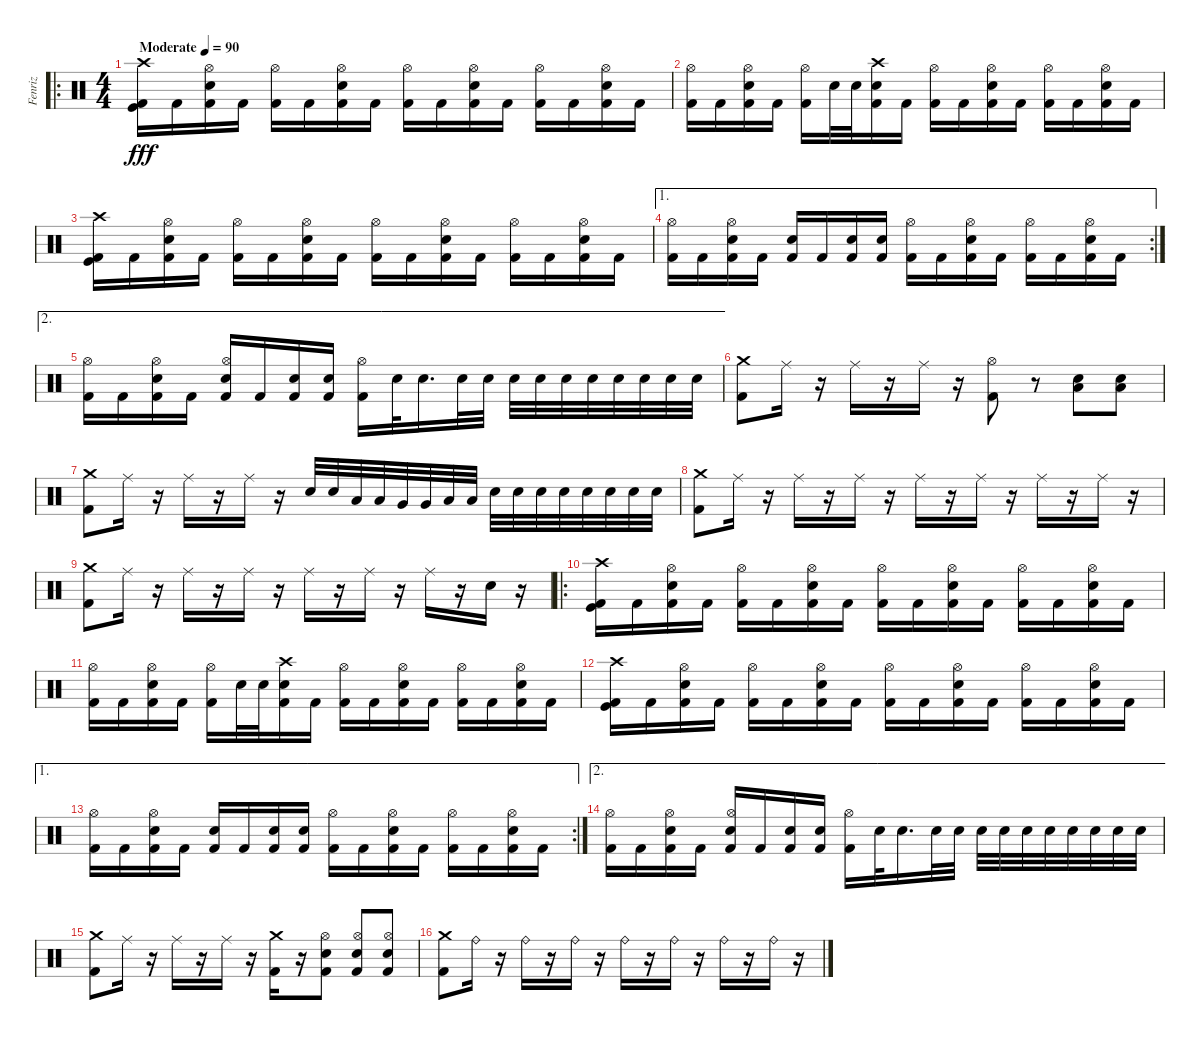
\track ("Fenriz" "Fenriz") {instrument percussion}
\staff {score}
\articulation defaults
\ro
\ts (4 4)
\tempo (90 "Moderate")
\clef neutral
\ks c
("Crash high (hit)" "Kick (hit)" "Kick (hit) 2").16{dy fff} "Kick (hit) 2".16 ("Hi-Hat (open)" "Electric Snare (hit)" "Kick (hit) 2").16 "Kick (hit) 2".16 ("Hi-Hat (open)" "Kick (hit) 2").16 "Kick (hit) 2".16 ("Hi-Hat (open)" "Electric Snare (hit)" "Kick (hit) 2").16 "Kick (hit) 2".16 ("Hi-Hat (open)" "Kick (hit) 2").16 "Kick (hit) 2".16 ("Hi-Hat (open)" "Electric Snare (hit)" "Kick (hit) 2").16 "Kick (hit) 2".16 ("Hi-Hat (open)" "Kick (hit) 2").16 "Kick (hit) 2".16 ("Hi-Hat (open)" "Electric Snare (hit)" "Kick (hit) 2").16 "Kick (hit) 2".16 |
("Hi-Hat (open)" "Kick (hit) 2").16 "Kick (hit) 2".16 ("Hi-Hat (open)" "Electric Snare (hit)" "Kick (hit) 2").16 "Kick (hit) 2".16 ("Hi-Hat (open)" "Kick (hit) 2").16 "Snare (hit) 2".32 "Snare (hit) 2".32 ("Crash high (hit)" "Snare (hit) 2" "Kick (hit) 2").16 "Kick (hit) 2".16 ("Hi-Hat (open)" "Kick (hit) 2").16 "Kick (hit) 2".16 ("Hi-Hat (open)" "Electric Snare (hit)" "Kick (hit) 2").16 "Kick (hit) 2".16 ("Hi-Hat (open)" "Kick (hit) 2").16 "Kick (hit) 2".16 ("Hi-Hat (open)" "Electric Snare (hit)" "Kick (hit) 2").16 "Kick (hit) 2".16 |
("Crash high (hit)" "Kick (hit)" "Kick (hit) 2").16 "Kick (hit) 2".16 ("Hi-Hat (open)" "Electric Snare (hit)" "Kick (hit) 2").16 "Kick (hit) 2".16 ("Hi-Hat (open)" "Kick (hit) 2").16 "Kick (hit) 2".16 ("Hi-Hat (open)" "Electric Snare (hit)" "Kick (hit) 2").16 "Kick (hit) 2".16 ("Hi-Hat (open)" "Kick (hit) 2").16 "Kick (hit) 2".16 ("Hi-Hat (open)" "Electric Snare (hit)" "Kick (hit) 2").16 "Kick (hit) 2".16 ("Hi-Hat (open)" "Kick (hit) 2").16 "Kick (hit) 2".16 ("Hi-Hat (open)" "Electric Snare (hit)" "Kick (hit) 2").16 "Kick (hit) 2".16 |
\ae 1
\rc 2
("Hi-Hat (open)" "Kick (hit) 2").16 "Kick (hit) 2".16 ("Hi-Hat (open)" "Electric Snare (hit)" "Kick (hit) 2").16 "Kick (hit) 2".16 ("Snare (hit) 2" "Kick (hit) 2").16 "Kick (hit) 2".16 ("Snare (hit) 2" "Kick (hit) 2").16 ("Snare (hit) 2" "Kick (hit) 2").16 ("Hi-Hat (open)" "Kick (hit) 2").16 "Kick (hit) 2".16 ("Hi-Hat (open)" "Electric Snare (hit)" "Kick (hit) 2").16 "Kick (hit) 2".16 ("Hi-Hat (open)" "Kick (hit) 2").16 "Kick (hit) 2".16 ("Hi-Hat (open)" "Electric Snare (hit)" "Kick (hit) 2").16 "Kick (hit) 2".16 |
\ae 2
("Hi-Hat (open)" "Kick (hit) 2").16 "Kick (hit) 2".16 ("Hi-Hat (open)" "Electric Snare (hit)" "Kick (hit) 2").16 "Kick (hit) 2".16 ("Hi-Hat (open)" "Electric Snare (hit)" "Kick (hit) 2").16 "Kick (hit) 2".16 ("Electric Snare (hit)" "Kick (hit) 2").16 ("Electric Snare (hit)" "Kick (hit) 2").16 ("Hi-Hat (open)" "Kick (hit) 2").16 "Snare (hit) 2".32 "Snare (hit) 2".16{d} "Snare (hit) 2".32 "Snare (hit) 2".32 "Snare (hit) 2".32 "Snare (hit) 2".32 "Snare (hit) 2".32 "Snare (hit) 2".32 "Snare (hit) 2".32 "Snare (hit) 2".32 "Snare (hit) 2".32 "Snare (hit) 2".32 |
("Crash medium (hit)" "Kick (hit) 2").8 "Ride (middle)".16 r.16 "Ride (middle)".16 r.16 "Ride (middle)".16 r.16 ("Hi-Hat (open)" "Kick (hit) 2").8 r.8 ("Low Floor Tom (hit)" "Snare (hit) 2").8 ("Low Floor Tom (hit)" "Snare (hit) 2").8 |
("Crash medium (hit)" "Kick (hit) 2").8 "Ride (middle)".16 r.16 "Ride (middle)".16 r.16 "Ride (middle)".16 r.16 "Snare (hit) 2".32 "Snare (hit) 2".32 "Low Tom (hit)".32 "Low Tom (hit)".32 "Very Low Tom (hit)".32 "Very Low Tom (hit)".32 "Low Floor Tom (hit)".32 "Low Floor Tom (hit)".32 "Snare (hit) 2".32 "Snare (hit) 2".32 "Snare (hit) 2".32 "Snare (hit) 2".32 "Snare (hit) 2".32 "Snare (hit) 2".32 "Snare (hit) 2".32 "Snare (hit) 2".32 |
("Crash medium (hit)" "Kick (hit) 2").8 "Ride (middle)".16 r.16 "Ride (middle)".16 r.16 "Ride (middle)".16 r.16 "Ride (middle)".16 r.16 "Ride (middle)".16 r.16 "Ride (middle)".16 r.16 "Ride (middle)".16 r.16 |
("Crash medium (hit)" "Kick (hit) 2").8 "Ride (middle)".16 r.16 "Ride (middle)".16 r.16 "Ride (middle)".16 r.16 "Ride (middle)".16 r.16 "Ride (middle)".16 r.16 "Ride (middle)".16 r.16 "Electric Snare (hit)".16 r.16 |
\ro
("Crash high (hit)" "Kick (hit)" "Kick (hit) 2").16 "Kick (hit) 2".16 ("Hi-Hat (open)" "Electric Snare (hit)" "Kick (hit) 2").16 "Kick (hit) 2".16 ("Hi-Hat (open)" "Kick (hit) 2").16 "Kick (hit) 2".16 ("Hi-Hat (open)" "Electric Snare (hit)" "Kick (hit) 2").16 "Kick (hit) 2".16 ("Hi-Hat (open)" "Kick (hit) 2").16 "Kick (hit) 2".16 ("Hi-Hat (open)" "Electric Snare (hit)" "Kick (hit) 2").16 "Kick (hit) 2".16 ("Hi-Hat (open)" "Kick (hit) 2").16 "Kick (hit) 2".16 ("Hi-Hat (open)" "Electric Snare (hit)" "Kick (hit) 2").16 "Kick (hit) 2".16 |
("Hi-Hat (open)" "Kick (hit) 2").16 "Kick (hit) 2".16 ("Hi-Hat (open)" "Electric Snare (hit)" "Kick (hit) 2").16 "Kick (hit) 2".16 ("Hi-Hat (open)" "Kick (hit) 2").16 "Snare (hit) 2".32 "Snare (hit) 2".32 ("Crash high (hit)" "Snare (hit) 2" "Kick (hit) 2").16 "Kick (hit) 2".16 ("Hi-Hat (open)" "Kick (hit) 2").16 "Kick (hit) 2".16 ("Hi-Hat (open)" "Electric Snare (hit)" "Kick (hit) 2").16 "Kick (hit) 2".16 ("Hi-Hat (open)" "Kick (hit) 2").16 "Kick (hit) 2".16 ("Hi-Hat (open)" "Electric Snare (hit)" "Kick (hit) 2").16 "Kick (hit) 2".16 |
("Crash high (hit)" "Kick (hit)" "Kick (hit) 2").16 "Kick (hit) 2".16 ("Hi-Hat (open)" "Electric Snare (hit)" "Kick (hit) 2").16 "Kick (hit) 2".16 ("Hi-Hat (open)" "Kick (hit) 2").16 "Kick (hit) 2".16 ("Hi-Hat (open)" "Electric Snare (hit)" "Kick (hit) 2").16 "Kick (hit) 2".16 ("Hi-Hat (open)" "Kick (hit) 2").16 "Kick (hit) 2".16 ("Hi-Hat (open)" "Electric Snare (hit)" "Kick (hit) 2").16 "Kick (hit) 2".16 ("Hi-Hat (open)" "Kick (hit) 2").16 "Kick (hit) 2".16 ("Hi-Hat (open)" "Electric Snare (hit)" "Kick (hit) 2").16 "Kick (hit) 2".16 |
\ae 1
\rc 2
("Hi-Hat (open)" "Kick (hit) 2").16 "Kick (hit) 2".16 ("Hi-Hat (open)" "Electric Snare (hit)" "Kick (hit) 2").16 "Kick (hit) 2".16 ("Snare (hit) 2" "Kick (hit) 2").16 "Kick (hit) 2".16 ("Snare (hit) 2" "Kick (hit) 2").16 ("Snare (hit) 2" "Kick (hit) 2").16 ("Hi-Hat (open)" "Kick (hit) 2").16 "Kick (hit) 2".16 ("Hi-Hat (open)" "Electric Snare (hit)" "Kick (hit) 2").16 "Kick (hit) 2".16 ("Hi-Hat (open)" "Kick (hit) 2").16 "Kick (hit) 2".16 ("Hi-Hat (open)" "Electric Snare (hit)" "Kick (hit) 2").16 "Kick (hit) 2".16 |
\ae 2
("Hi-Hat (open)" "Kick (hit) 2").16 "Kick (hit) 2".16 ("Hi-Hat (open)" "Electric Snare (hit)" "Kick (hit) 2").16 "Kick (hit) 2".16 ("Hi-Hat (open)" "Electric Snare (hit)" "Kick (hit) 2").16 "Kick (hit) 2".16 ("Electric Snare (hit)" "Kick (hit) 2").16 ("Electric Snare (hit)" "Kick (hit) 2").16 ("Hi-Hat (open)" "Kick (hit) 2").16 "Snare (hit) 2".32 "Snare (hit) 2".16{d} "Snare (hit) 2".32 "Snare (hit) 2".32 "Snare (hit) 2".32 "Snare (hit) 2".32 "Snare (hit) 2".32 "Snare (hit) 2".32 "Snare (hit) 2".32 "Snare (hit) 2".32 "Snare (hit) 2".32 "Snare (hit) 2".32 |
("Crash medium (hit)" "Kick (hit) 2").8 "Ride (middle)".16 r.16 "Ride (middle)".16 r.16 "Ride (middle)".16 r.16 ("Crash medium (hit)" "Kick (hit) 2").16 r.16 ("Hi-Hat (open)" "Snare (hit) 2" "Kick (hit) 2").8 ("Hi-Hat (open)" "Snare (hit) 2" "Kick (hit) 2").8 ("Hi-Hat (open)" "Snare (hit) 2" "Kick (hit) 2").8 |
("Crash medium (hit)" "Kick (hit) 2").8 "Ride (bell)".16 r.16 "Ride (bell)".16 r.16 "Ride (bell)".16 r.16 "Ride (bell)".16 r.16 "Ride (bell)".16 r.16 "Ride (bell)".16 r.16 "Ride (bell)".16 r.16
